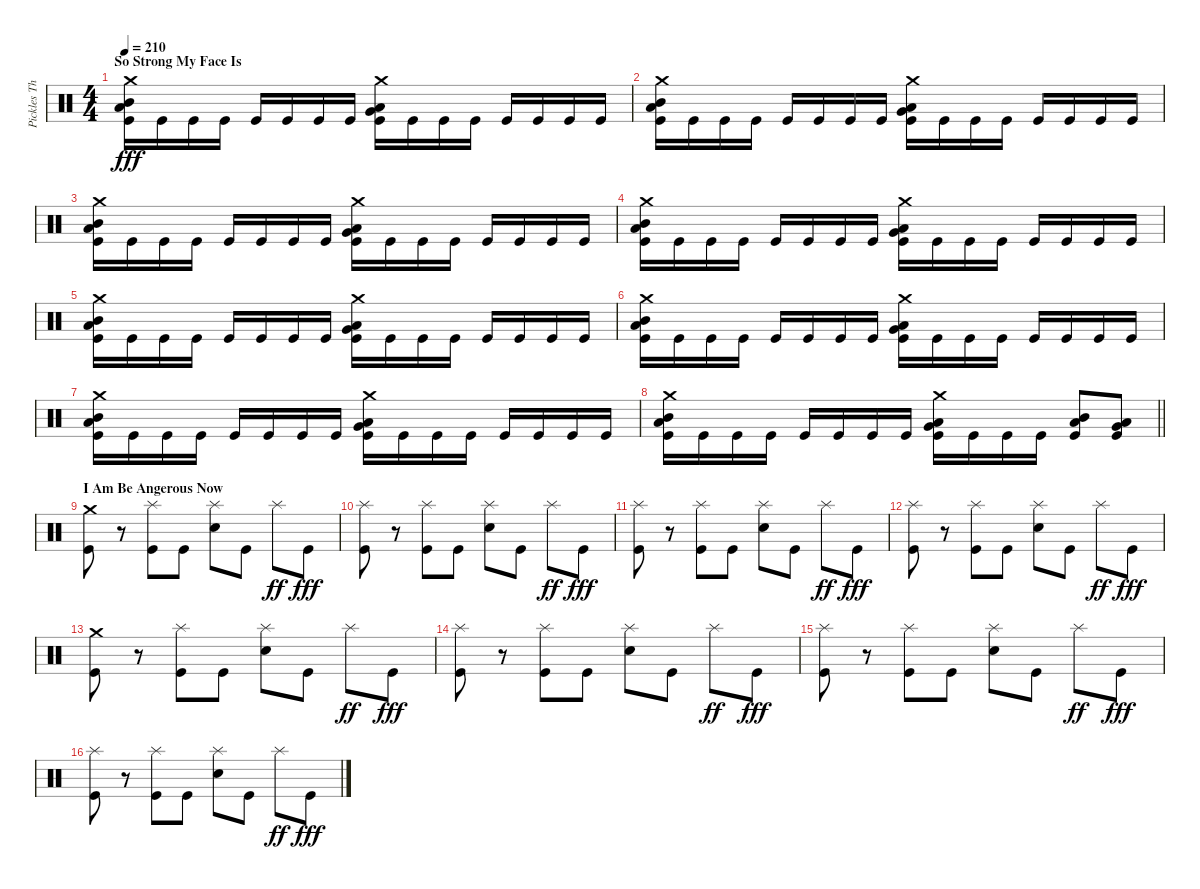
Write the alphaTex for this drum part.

\track ("Pickles The Drummer (Drums)" "Pickles Th") {instrument percussion}
\staff {score}
\articulation defaults
\ts (4 4)
\section ("" "So Strong My Face Is")
\tempo 210
\clef neutral
\ks c
("Crash medium (hit)" "Mid Tom (hit)" "Low Tom (hit)" "Kick (hit)").16{dy fff} "Kick (hit)".16 "Kick (hit)".16 "Kick (hit)".16 "Kick (hit)".16 "Kick (hit)".16 "Kick (hit)".16 "Kick (hit)".16 ("Crash medium (hit)" "Very Low Tom (hit)" "Low Floor Tom (hit)" "Kick (hit)").16 "Kick (hit)".16 "Kick (hit)".16 "Kick (hit)".16 "Kick (hit)".16 "Kick (hit)".16 "Kick (hit)".16 "Kick (hit)".16 |
("Crash medium (hit)" "Mid Tom (hit)" "Low Tom (hit)" "Kick (hit)").16 "Kick (hit)".16 "Kick (hit)".16 "Kick (hit)".16 "Kick (hit)".16 "Kick (hit)".16 "Kick (hit)".16 "Kick (hit)".16 ("Crash medium (hit)" "Very Low Tom (hit)" "Low Floor Tom (hit)" "Kick (hit)").16 "Kick (hit)".16 "Kick (hit)".16 "Kick (hit)".16 "Kick (hit)".16 "Kick (hit)".16 "Kick (hit)".16 "Kick (hit)".16 |
("Crash medium (hit)" "Mid Tom (hit)" "Low Tom (hit)" "Kick (hit)").16 "Kick (hit)".16 "Kick (hit)".16 "Kick (hit)".16 "Kick (hit)".16 "Kick (hit)".16 "Kick (hit)".16 "Kick (hit)".16 ("Crash medium (hit)" "Very Low Tom (hit)" "Low Floor Tom (hit)" "Kick (hit)").16 "Kick (hit)".16 "Kick (hit)".16 "Kick (hit)".16 "Kick (hit)".16 "Kick (hit)".16 "Kick (hit)".16 "Kick (hit)".16 |
("Crash medium (hit)" "Mid Tom (hit)" "Low Tom (hit)" "Kick (hit)").16 "Kick (hit)".16 "Kick (hit)".16 "Kick (hit)".16 "Kick (hit)".16 "Kick (hit)".16 "Kick (hit)".16 "Kick (hit)".16 ("Crash medium (hit)" "Very Low Tom (hit)" "Low Floor Tom (hit)" "Kick (hit)").16 "Kick (hit)".16 "Kick (hit)".16 "Kick (hit)".16 "Kick (hit)".16 "Kick (hit)".16 "Kick (hit)".16 "Kick (hit)".16 |
("Crash medium (hit)" "Mid Tom (hit)" "Low Tom (hit)" "Kick (hit)").16 "Kick (hit)".16 "Kick (hit)".16 "Kick (hit)".16 "Kick (hit)".16 "Kick (hit)".16 "Kick (hit)".16 "Kick (hit)".16 ("Crash medium (hit)" "Very Low Tom (hit)" "Low Floor Tom (hit)" "Kick (hit)").16 "Kick (hit)".16 "Kick (hit)".16 "Kick (hit)".16 "Kick (hit)".16 "Kick (hit)".16 "Kick (hit)".16 "Kick (hit)".16 |
("Crash medium (hit)" "Mid Tom (hit)" "Low Tom (hit)" "Kick (hit)").16 "Kick (hit)".16 "Kick (hit)".16 "Kick (hit)".16 "Kick (hit)".16 "Kick (hit)".16 "Kick (hit)".16 "Kick (hit)".16 ("Crash medium (hit)" "Very Low Tom (hit)" "Low Floor Tom (hit)" "Kick (hit)").16 "Kick (hit)".16 "Kick (hit)".16 "Kick (hit)".16 "Kick (hit)".16 "Kick (hit)".16 "Kick (hit)".16 "Kick (hit)".16 |
("Crash medium (hit)" "Mid Tom (hit)" "Low Tom (hit)" "Kick (hit)").16 "Kick (hit)".16 "Kick (hit)".16 "Kick (hit)".16 "Kick (hit)".16 "Kick (hit)".16 "Kick (hit)".16 "Kick (hit)".16 ("Crash medium (hit)" "Very Low Tom (hit)" "Low Floor Tom (hit)" "Kick (hit)").16 "Kick (hit)".16 "Kick (hit)".16 "Kick (hit)".16 "Kick (hit)".16 "Kick (hit)".16 "Kick (hit)".16 "Kick (hit)".16 |
\barLineRight lightlight
("Crash medium (hit)" "Mid Tom (hit)" "Low Tom (hit)" "Kick (hit)").16 "Kick (hit)".16 "Kick (hit)".16 "Kick (hit)".16 "Kick (hit)".16 "Kick (hit)".16 "Kick (hit)".16 "Kick (hit)".16 ("Crash medium (hit)" "Very Low Tom (hit)" "Low Floor Tom (hit)" "Kick (hit)").16 "Kick (hit)".16 "Kick (hit)".16 "Kick (hit)".16 ("Mid Tom (hit)" "Low Tom (hit)" "Kick (hit)").8 ("Very Low Tom (hit)" "Low Floor Tom (hit)" "Kick (hit)").8 |
\section ("" "I Am Be Angerous Now")
("Crash medium (hit)" "Kick (hit)").8 r.8 ("Splash (hit)" "Kick (hit)").8 "Kick (hit)".8 ("Splash (hit)" "Snare (hit) 2").8 "Kick (hit)".8 "Splash (hit)".8{dy ff} "Kick (hit)".8{dy fff} |
("Splash (hit)" "Kick (hit)").8 r.8 ("Splash (hit)" "Kick (hit)").8 "Kick (hit)".8 ("Splash (hit)" "Snare (hit) 2").8 "Kick (hit)".8 "Splash (hit)".8{dy ff} "Kick (hit)".8{dy fff} |
("Splash (hit)" "Kick (hit)").8 r.8 ("Splash (hit)" "Kick (hit)").8 "Kick (hit)".8 ("Splash (hit)" "Snare (hit) 2").8 "Kick (hit)".8 "Splash (hit)".8{dy ff} "Kick (hit)".8{dy fff} |
("Splash (hit)" "Kick (hit)").8 r.8 ("Splash (hit)" "Kick (hit)").8 "Kick (hit)".8 ("Splash (hit)" "Snare (hit) 2").8 "Kick (hit)".8 "Splash (hit)".8{dy ff} "Kick (hit)".8{dy fff} |
("Crash medium (hit)" "Kick (hit)").8 r.8 ("Splash (hit)" "Kick (hit)").8 "Kick (hit)".8 ("Splash (hit)" "Snare (hit) 2").8 "Kick (hit)".8 "Splash (hit)".8{dy ff} "Kick (hit)".8{dy fff} |
("Splash (hit)" "Kick (hit)").8 r.8 ("Splash (hit)" "Kick (hit)").8 "Kick (hit)".8 ("Splash (hit)" "Snare (hit) 2").8 "Kick (hit)".8 "Splash (hit)".8{dy ff} "Kick (hit)".8{dy fff} |
("Splash (hit)" "Kick (hit)").8 r.8 ("Splash (hit)" "Kick (hit)").8 "Kick (hit)".8 ("Splash (hit)" "Snare (hit) 2").8 "Kick (hit)".8 "Splash (hit)".8{dy ff} "Kick (hit)".8{dy fff} |
("Splash (hit)" "Kick (hit)").8 r.8 ("Splash (hit)" "Kick (hit)").8 "Kick (hit)".8 ("Splash (hit)" "Snare (hit) 2").8 "Kick (hit)".8 "Splash (hit)".8{dy ff} "Kick (hit)".8{dy fff}
